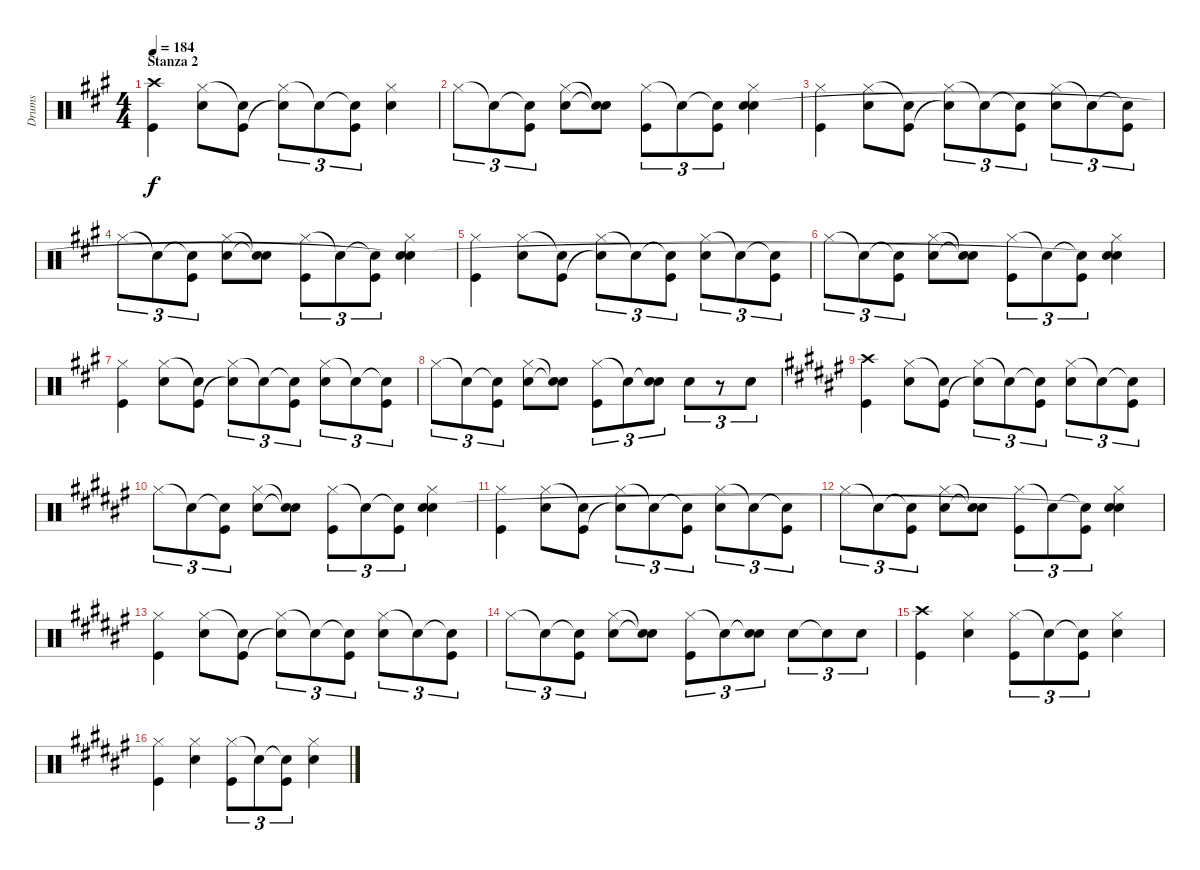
\track ("Drums" "Drums") {instrument percussion}
\staff {score}
\articulation defaults
\ts (4 4)
\section ("" "Stanza 2")
\tempo 184
\clef neutral
\ks f#minor
("Crash high (hit)" "Kick (hit)").4{dy f} ("Hi-Hat (closed)" "Electric Snare (hit)").8 ("Snare (hit)"{t} "Kick (hit)").8 ("Hi-Hat (closed)" "Snare (hit)"{t}).8{tu (3 2)} "Snare (hit)"{t}.8{tu (3 2)} ("Snare (hit)"{t} "Kick (hit)").8{tu (3 2)} ("Hi-Hat (closed)" "Electric Snare (hit)").4 |
"Hi-Hat (closed)".8{tu (3 2)} "Snare (hit)"{t}.8{tu (3 2)} ("Snare (hit)"{t} "Kick (hit)").8{tu (3 2)} ("Hi-Hat (closed)" "Electric Snare (hit)").8 ("Snare (hit)"{t} "Snare (hit)"{t}).8 ("Hi-Hat (closed)" "Kick (hit)").8{tu (3 2)} "Snare (hit)"{t}.8{tu (3 2)} ("Snare (hit)"{t} "Kick (hit)").8{tu (3 2)} ("Hi-Hat (closed)" "Electric Snare (hit)" "Snare (hit)"{t}).4 |
("Hi-Hat (closed)" "Kick (hit)").4 ("Hi-Hat (closed)" "Electric Snare (hit)").8 ("Snare (hit)"{t} "Kick (hit)").8 ("Hi-Hat (closed)" "Snare (hit)"{t}).8{tu (3 2)} "Snare (hit)"{t}.8{tu (3 2)} ("Snare (hit)"{t} "Kick (hit)").8{tu (3 2)} ("Hi-Hat (closed)" "Electric Snare (hit)").8{tu (3 2)} "Snare (hit)"{t}.8{tu (3 2)} ("Snare (hit)"{t} "Kick (hit)").8{tu (3 2)} |
"Hi-Hat (closed)".8{tu (3 2)} "Snare (hit)"{t}.8{tu (3 2)} ("Snare (hit)"{t} "Kick (hit)").8{tu (3 2)} ("Hi-Hat (closed)" "Electric Snare (hit)").8 ("Snare (hit)"{t} "Snare (hit)"{t}).8 ("Hi-Hat (closed)" "Kick (hit)").8{tu (3 2)} "Snare (hit)"{t}.8{tu (3 2)} ("Snare (hit)"{t} "Kick (hit)").8{tu (3 2)} ("Hi-Hat (closed)" "Electric Snare (hit)" "Snare (hit)"{t}).4 |
("Hi-Hat (closed)" "Kick (hit)").4 ("Hi-Hat (closed)" "Electric Snare (hit)").8 ("Snare (hit)"{t} "Kick (hit)").8 ("Hi-Hat (closed)" "Snare (hit)"{t}).8{tu (3 2)} "Snare (hit)"{t}.8{tu (3 2)} ("Snare (hit)"{t} "Kick (hit)").8{tu (3 2)} ("Hi-Hat (closed)" "Electric Snare (hit)").8{tu (3 2)} "Snare (hit)"{t}.8{tu (3 2)} ("Snare (hit)"{t} "Kick (hit)").8{tu (3 2)} |
"Hi-Hat (closed)".8{tu (3 2)} "Snare (hit)"{t}.8{tu (3 2)} ("Snare (hit)"{t} "Kick (hit)").8{tu (3 2)} ("Hi-Hat (closed)" "Electric Snare (hit)").8 ("Snare (hit)"{t} "Snare (hit)"{t}).8 ("Hi-Hat (closed)" "Kick (hit)").8{tu (3 2)} "Snare (hit)"{t}.8{tu (3 2)} ("Snare (hit)"{t} "Kick (hit)").8{tu (3 2)} ("Hi-Hat (closed)" "Electric Snare (hit)" "Snare (hit)"{t}).4 |
("Hi-Hat (closed)" "Kick (hit)").4 ("Hi-Hat (closed)" "Electric Snare (hit)").8 ("Snare (hit)"{t} "Kick (hit)").8 ("Hi-Hat (closed)" "Snare (hit)"{t}).8{tu (3 2)} "Snare (hit)"{t}.8{tu (3 2)} ("Snare (hit)"{t} "Kick (hit)").8{tu (3 2)} ("Hi-Hat (closed)" "Electric Snare (hit)").8{tu (3 2)} "Snare (hit)"{t}.8{tu (3 2)} ("Snare (hit)"{t} "Kick (hit)").8{tu (3 2)} |
"Hi-Hat (closed)".8{tu (3 2)} "Snare (hit)"{t}.8{tu (3 2)} ("Snare (hit)"{t} "Kick (hit)").8{tu (3 2)} ("Hi-Hat (closed)" "Electric Snare (hit)").8 ("Snare (hit)"{t} "Snare (hit)"{t}).8 ("Hi-Hat (closed)" "Kick (hit)").8{tu (3 2)} "Snare (hit)"{t}.8{tu (3 2)} ("Snare (hit)"{t} "Electric Snare (hit)").8{tu (3 2)} "Electric Snare (hit)".8{tu (3 2)} r.8{tu (3 2)} "Electric Snare (hit)".8{tu (3 2)} |
\ks f#
("Crash high (hit)" "Kick (hit)").4 ("Hi-Hat (closed)" "Electric Snare (hit)").8 ("Snare (hit)"{t} "Kick (hit)").8 ("Hi-Hat (closed)" "Snare (hit)"{t}).8{tu (3 2)} "Snare (hit)"{t}.8{tu (3 2)} ("Snare (hit)"{t} "Kick (hit)").8{tu (3 2)} ("Hi-Hat (closed)" "Electric Snare (hit)").8{tu (3 2)} "Snare (hit)"{t}.8{tu (3 2)} ("Snare (hit)"{t} "Kick (hit)").8{tu (3 2)} |
"Hi-Hat (closed)".8{tu (3 2)} "Snare (hit)"{t}.8{tu (3 2)} ("Snare (hit)"{t} "Kick (hit)").8{tu (3 2)} ("Hi-Hat (closed)" "Electric Snare (hit)").8 ("Snare (hit)"{t} "Snare (hit)"{t}).8 ("Hi-Hat (closed)" "Kick (hit)").8{tu (3 2)} "Snare (hit)"{t}.8{tu (3 2)} ("Snare (hit)"{t} "Kick (hit)").8{tu (3 2)} ("Hi-Hat (closed)" "Electric Snare (hit)" "Snare (hit)").4 |
("Hi-Hat (closed)" "Kick (hit)").4 ("Hi-Hat (closed)" "Electric Snare (hit)").8 ("Snare (hit)"{t} "Kick (hit)").8 ("Hi-Hat (closed)" "Snare (hit)"{t}).8{tu (3 2)} "Snare (hit)"{t}.8{tu (3 2)} ("Snare (hit)"{t} "Kick (hit)").8{tu (3 2)} ("Hi-Hat (closed)" "Electric Snare (hit)").8{tu (3 2)} "Snare (hit)"{t}.8{tu (3 2)} ("Snare (hit)"{t} "Kick (hit)").8{tu (3 2)} |
"Hi-Hat (closed)".8{tu (3 2)} "Snare (hit)"{t}.8{tu (3 2)} ("Snare (hit)"{t} "Kick (hit)").8{tu (3 2)} ("Hi-Hat (closed)" "Electric Snare (hit)").8 ("Snare (hit)"{t} "Snare (hit)"{t}).8 ("Hi-Hat (closed)" "Kick (hit)").8{tu (3 2)} "Snare (hit)"{t}.8{tu (3 2)} ("Snare (hit)"{t} "Kick (hit)").8{tu (3 2)} ("Hi-Hat (closed)" "Electric Snare (hit)" "Snare (hit)"{t}).4 |
("Hi-Hat (closed)" "Kick (hit)").4 ("Hi-Hat (closed)" "Electric Snare (hit)").8 ("Snare (hit)"{t} "Kick (hit)").8 ("Hi-Hat (closed)" "Snare (hit)"{t}).8{tu (3 2)} "Snare (hit)"{t}.8{tu (3 2)} ("Snare (hit)"{t} "Kick (hit)").8{tu (3 2)} ("Hi-Hat (closed)" "Electric Snare (hit)").8{tu (3 2)} "Snare (hit)"{t}.8{tu (3 2)} ("Snare (hit)"{t} "Kick (hit)").8{tu (3 2)} |
"Hi-Hat (closed)".8{tu (3 2)} "Snare (hit)"{t}.8{tu (3 2)} ("Snare (hit)"{t} "Kick (hit)").8{tu (3 2)} ("Hi-Hat (closed)" "Electric Snare (hit)").8 ("Snare (hit)"{t} "Snare (hit)"{t}).8 ("Hi-Hat (closed)" "Kick (hit)").8{tu (3 2)} "Snare (hit)"{t}.8{tu (3 2)} ("Snare (hit)"{t} "Electric Snare (hit)").8{tu (3 2)} "Electric Snare (hit)".8{tu (3 2)} "Snare (hit)"{t}.8{tu (3 2)} "Electric Snare (hit)".8{tu (3 2)} |
("Crash high (hit)" "Kick (hit)").4 ("Hi-Hat (closed)" "Electric Snare (hit)").4 ("Hi-Hat (closed)" "Kick (hit)").8{tu (3 2)} "Snare (hit)"{t}.8{tu (3 2)} ("Snare (hit)"{t} "Kick (hit)").8{tu (3 2)} ("Hi-Hat (closed)" "Electric Snare (hit)").4 |
("Hi-Hat (closed)" "Kick (hit)").4 ("Hi-Hat (closed)" "Electric Snare (hit)").4 ("Hi-Hat (closed)" "Kick (hit)").8{tu (3 2)} "Snare (hit)"{t}.8{tu (3 2)} ("Snare (hit)"{t} "Kick (hit)").8{tu (3 2)} ("Hi-Hat (closed)" "Electric Snare (hit)").4
